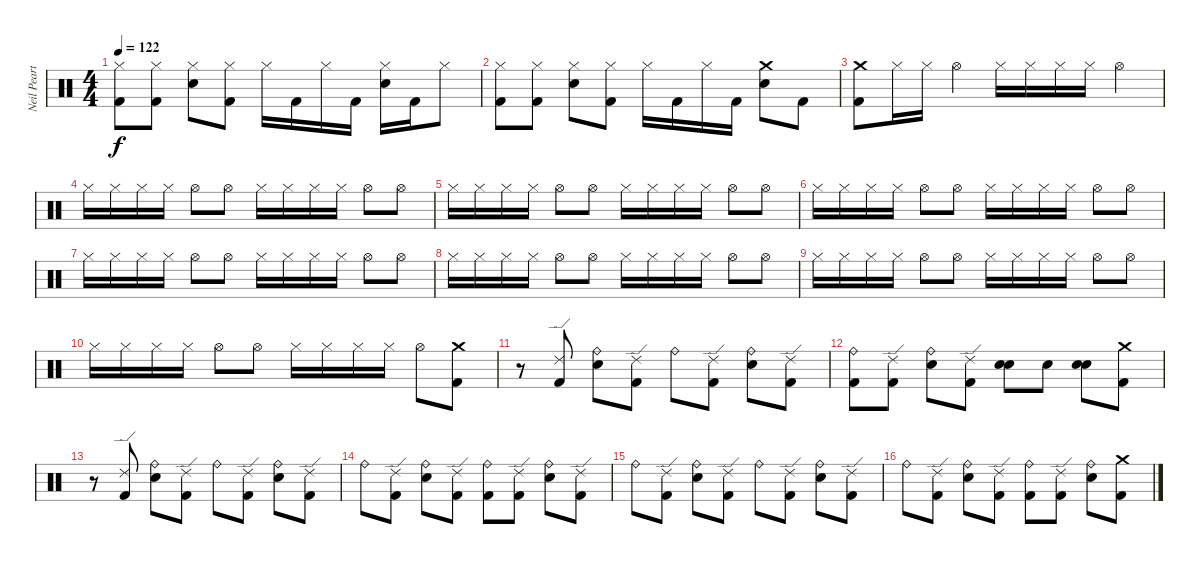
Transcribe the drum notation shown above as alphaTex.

\track ("Neil Peart" "Neil Peart") {instrument percussion}
\staff {score}
\articulation defaults
\ts (4 4)
\tempo 122
\clef neutral
\ks c
("Kick (hit) 2" "Hi-Hat (closed)").8{dy f} ("Hi-Hat (closed)" "Kick (hit) 2").8 ("Snare (hit) 2" "Hi-Hat (closed)").8 ("Hi-Hat (closed)" "Kick (hit) 2").8 "Hi-Hat (closed)".16 "Kick (hit) 2".16 "Hi-Hat (closed)".16 "Kick (hit) 2".16 ("Snare (hit) 2" "Hi-Hat (closed)").16 "Kick (hit) 2".16 "Hi-Hat (closed)".8 |
("Kick (hit) 2" "Hi-Hat (closed)").8 ("Hi-Hat (closed)" "Kick (hit) 2").8 ("Snare (hit) 2" "Hi-Hat (closed)").8 ("Hi-Hat (closed)" "Kick (hit) 2").8 "Hi-Hat (closed)".16 "Kick (hit) 2".16 "Hi-Hat (closed)".16 "Kick (hit) 2".16 ("Crash medium (hit)" "Snare (hit) 2").8 "Kick (hit) 2".8 |
("Crash medium (hit)" "Kick (hit) 2").8 "Hi-Hat (closed)".16 "Hi-Hat (closed)".16 "Hi-Hat (open)".4 "Hi-Hat (closed)".16 "Hi-Hat (closed)".16 "Hi-Hat (closed)".16 "Hi-Hat (closed)".16 "Hi-Hat (open)".4 |
"Hi-Hat (closed)".16 "Hi-Hat (closed)".16 "Hi-Hat (closed)".16 "Hi-Hat (closed)".16 "Hi-Hat (open)".8 "Hi-Hat (open)".8 "Hi-Hat (closed)".16 "Hi-Hat (closed)".16 "Hi-Hat (closed)".16 "Hi-Hat (closed)".16 "Hi-Hat (open)".8 "Hi-Hat (open)".8 |
"Hi-Hat (closed)".16 "Hi-Hat (closed)".16 "Hi-Hat (closed)".16 "Hi-Hat (closed)".16 "Hi-Hat (open)".8 "Hi-Hat (open)".8 "Hi-Hat (closed)".16 "Hi-Hat (closed)".16 "Hi-Hat (closed)".16 "Hi-Hat (closed)".16 "Hi-Hat (open)".8 "Hi-Hat (open)".8 |
"Hi-Hat (closed)".16 "Hi-Hat (closed)".16 "Hi-Hat (closed)".16 "Hi-Hat (closed)".16 "Hi-Hat (open)".8 "Hi-Hat (open)".8 "Hi-Hat (closed)".16 "Hi-Hat (closed)".16 "Hi-Hat (closed)".16 "Hi-Hat (closed)".16 "Hi-Hat (open)".8 "Hi-Hat (open)".8 |
"Hi-Hat (closed)".16 "Hi-Hat (closed)".16 "Hi-Hat (closed)".16 "Hi-Hat (closed)".16 "Hi-Hat (open)".8 "Hi-Hat (open)".8 "Hi-Hat (closed)".16 "Hi-Hat (closed)".16 "Hi-Hat (closed)".16 "Hi-Hat (closed)".16 "Hi-Hat (open)".8 "Hi-Hat (open)".8 |
"Hi-Hat (closed)".16 "Hi-Hat (closed)".16 "Hi-Hat (closed)".16 "Hi-Hat (closed)".16 "Hi-Hat (open)".8 "Hi-Hat (open)".8 "Hi-Hat (closed)".16 "Hi-Hat (closed)".16 "Hi-Hat (closed)".16 "Hi-Hat (closed)".16 "Hi-Hat (open)".8 "Hi-Hat (open)".8 |
"Hi-Hat (closed)".16 "Hi-Hat (closed)".16 "Hi-Hat (closed)".16 "Hi-Hat (closed)".16 "Hi-Hat (open)".8 "Hi-Hat (open)".8 "Hi-Hat (closed)".16 "Hi-Hat (closed)".16 "Hi-Hat (closed)".16 "Hi-Hat (closed)".16 "Hi-Hat (open)".8 "Hi-Hat (open)".8 |
"Hi-Hat (closed)".16 "Hi-Hat (closed)".16 "Hi-Hat (closed)".16 "Hi-Hat (closed)".16 "Hi-Hat (open)".8 "Hi-Hat (open)".8 "Hi-Hat (closed)".16 "Hi-Hat (closed)".16 "Hi-Hat (closed)".16 "Hi-Hat (closed)".16 "Hi-Hat (open)".8 ("Crash medium (hit)" "Kick (hit) 2").8 |
r.8 ("Kick (hit) 2" "Ride (edge) 2").8 ("Ride (bell)" "Snare (hit) 2").8 ("Kick (hit) 2" "Ride (edge) 2").8 "Ride (bell)".8 ("Ride (edge) 2" "Kick (hit) 2").8 ("Ride (bell)" "Snare (hit) 2").8 ("Kick (hit) 2" "Ride (edge) 2").8 |
("Kick (hit) 2" "Ride (bell)").8 ("Kick (hit) 2" "Ride (edge) 2").8 ("Ride (bell)" "Snare (hit) 2").8 ("Kick (hit) 2" "Ride (edge) 2").8 ("Snare (hit) 2" "Snare (hit) 2").8 "Snare (hit) 2".8 ("Electric Snare (hit)" "Snare (hit) 2").8 ("Kick (hit) 2" "Crash medium (hit)").8 |
r.8 ("Ride (edge) 2" "Kick (hit) 2").8 ("Ride (bell)" "Snare (hit) 2").8 ("Kick (hit) 2" "Ride (edge) 2").8 "Ride (bell)".8 ("Kick (hit) 2" "Ride (edge) 2").8 ("Snare (hit) 2" "Ride (bell)").8 ("Ride (edge) 2" "Kick (hit) 2").8 |
"Ride (bell)".8 ("Kick (hit) 2" "Ride (edge) 2").8 ("Snare (hit) 2" "Ride (bell)").8 ("Ride (edge) 2" "Kick (hit) 2").8 ("Kick (hit) 2" "Ride (bell)").8 ("Kick (hit) 2" "Ride (edge) 2").8 ("Ride (bell)" "Snare (hit) 2").8 ("Ride (edge) 2" "Kick (hit) 2").8 |
"Ride (bell)".8 ("Ride (edge) 2" "Kick (hit) 2").8 ("Ride (bell)" "Snare (hit) 2").8 ("Kick (hit) 2" "Ride (edge) 2").8 "Ride (bell)".8 ("Kick (hit) 2" "Ride (edge) 2").8 ("Ride (bell)" "Snare (hit) 2").8 ("Ride (edge) 2" "Kick (hit) 2").8 |
"Ride (bell)".8 ("Ride (edge) 2" "Kick (hit) 2").8 ("Ride (bell)" "Snare (hit) 2").8 ("Kick (hit) 2" "Ride (edge) 2").8 ("Kick (hit) 2" "Ride (bell)").8 ("Ride (edge) 2" "Kick (hit) 2").8 ("Ride (bell)" "Snare (hit) 2").8 ("Crash medium (hit)" "Kick (hit) 2").8
